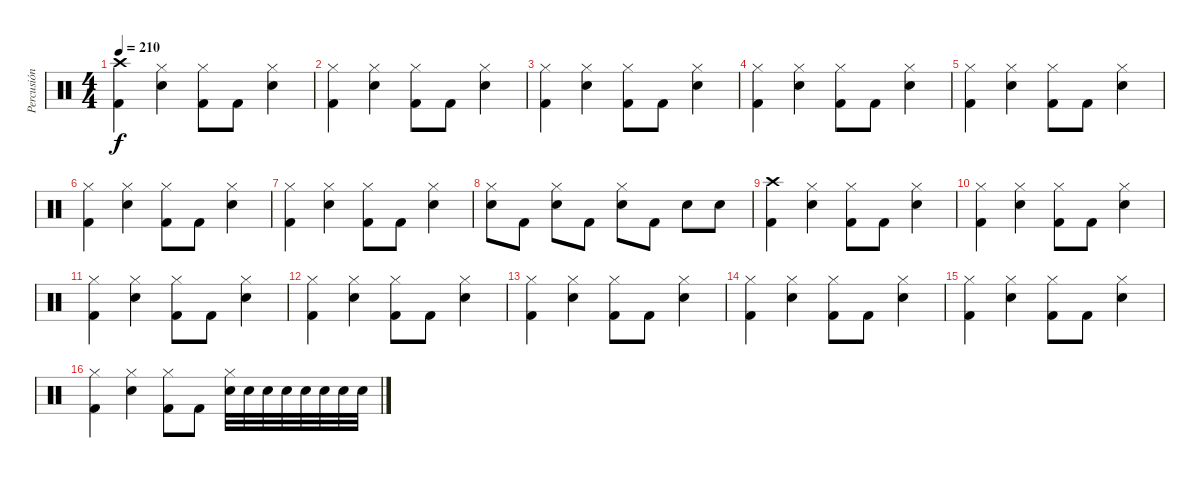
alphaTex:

\track ("Percusión" "Percusión") {instrument percussion}
\staff {score}
\articulation defaults
\ts (4 4)
\tempo 210
\clef neutral
\ks c
("Crash high (hit)" "Kick (hit) 2").4{dy f} ("Hi-Hat (closed)" "Electric Snare (hit)").4 ("Hi-Hat (closed)" "Kick (hit) 2").8 "Kick (hit) 2".8 ("Hi-Hat (closed)" "Electric Snare (hit)").4 |
("Hi-Hat (closed)" "Kick (hit) 2").4 ("Hi-Hat (closed)" "Electric Snare (hit)").4 ("Hi-Hat (closed)" "Kick (hit) 2").8 "Kick (hit) 2".8 ("Hi-Hat (closed)" "Electric Snare (hit)").4 |
("Hi-Hat (closed)" "Kick (hit) 2").4 ("Hi-Hat (closed)" "Electric Snare (hit)").4 ("Hi-Hat (closed)" "Kick (hit) 2").8 "Kick (hit) 2".8 ("Hi-Hat (closed)" "Electric Snare (hit)").4 |
("Hi-Hat (closed)" "Kick (hit) 2").4 ("Hi-Hat (closed)" "Electric Snare (hit)").4 ("Hi-Hat (closed)" "Kick (hit) 2").8 "Kick (hit) 2".8 ("Hi-Hat (closed)" "Electric Snare (hit)").4 |
("Hi-Hat (closed)" "Kick (hit) 2").4 ("Hi-Hat (closed)" "Electric Snare (hit)").4 ("Hi-Hat (closed)" "Kick (hit) 2").8 "Kick (hit) 2".8 ("Hi-Hat (closed)" "Electric Snare (hit)").4 |
("Hi-Hat (closed)" "Kick (hit) 2").4 ("Hi-Hat (closed)" "Electric Snare (hit)").4 ("Hi-Hat (closed)" "Kick (hit) 2").8 "Kick (hit) 2".8 ("Hi-Hat (closed)" "Electric Snare (hit)").4 |
("Hi-Hat (closed)" "Kick (hit) 2").4 ("Hi-Hat (closed)" "Electric Snare (hit)").4 ("Hi-Hat (closed)" "Kick (hit) 2").8 "Kick (hit) 2".8 ("Hi-Hat (closed)" "Electric Snare (hit)").4 |
("Hi-Hat (closed)" "Electric Snare (hit)").8 "Kick (hit) 2".8 ("Hi-Hat (closed)" "Electric Snare (hit)").8 "Kick (hit) 2".8 ("Hi-Hat (closed)" "Electric Snare (hit)").8 "Kick (hit) 2".8 "Electric Snare (hit)".8 "Electric Snare (hit)".8 |
("Crash high (hit)" "Kick (hit) 2").4 ("Hi-Hat (closed)" "Electric Snare (hit)").4 ("Hi-Hat (closed)" "Kick (hit) 2").8 "Kick (hit) 2".8 ("Hi-Hat (closed)" "Electric Snare (hit)").4 |
("Hi-Hat (closed)" "Kick (hit) 2").4 ("Hi-Hat (closed)" "Electric Snare (hit)").4 ("Hi-Hat (closed)" "Kick (hit) 2").8 "Kick (hit) 2".8 ("Hi-Hat (closed)" "Electric Snare (hit)").4 |
("Hi-Hat (closed)" "Kick (hit) 2").4 ("Hi-Hat (closed)" "Electric Snare (hit)").4 ("Hi-Hat (closed)" "Kick (hit) 2").8 "Kick (hit) 2".8 ("Hi-Hat (closed)" "Electric Snare (hit)").4 |
("Hi-Hat (closed)" "Kick (hit) 2").4 ("Hi-Hat (closed)" "Electric Snare (hit)").4 ("Hi-Hat (closed)" "Kick (hit) 2").8 "Kick (hit) 2".8 ("Hi-Hat (closed)" "Electric Snare (hit)").4 |
("Hi-Hat (closed)" "Kick (hit) 2").4 ("Hi-Hat (closed)" "Electric Snare (hit)").4 ("Hi-Hat (closed)" "Kick (hit) 2").8 "Kick (hit) 2".8 ("Hi-Hat (closed)" "Electric Snare (hit)").4 |
("Hi-Hat (closed)" "Kick (hit) 2").4 ("Hi-Hat (closed)" "Electric Snare (hit)").4 ("Hi-Hat (closed)" "Kick (hit) 2").8 "Kick (hit) 2".8 ("Hi-Hat (closed)" "Electric Snare (hit)").4 |
("Hi-Hat (closed)" "Kick (hit) 2").4 ("Hi-Hat (closed)" "Electric Snare (hit)").4 ("Hi-Hat (closed)" "Kick (hit) 2").8 "Kick (hit) 2".8 ("Hi-Hat (closed)" "Electric Snare (hit)").4 |
("Hi-Hat (closed)" "Kick (hit) 2").4 ("Hi-Hat (closed)" "Electric Snare (hit)").4 ("Hi-Hat (closed)" "Kick (hit) 2").8 "Kick (hit) 2".8 ("Hi-Hat (closed)" "Electric Snare (hit)").32 "Electric Snare (hit)".32 "Electric Snare (hit)".32 "Electric Snare (hit)".32 "Electric Snare (hit)".32 "Electric Snare (hit)".32 "Electric Snare (hit)".32 "Electric Snare (hit)".32
